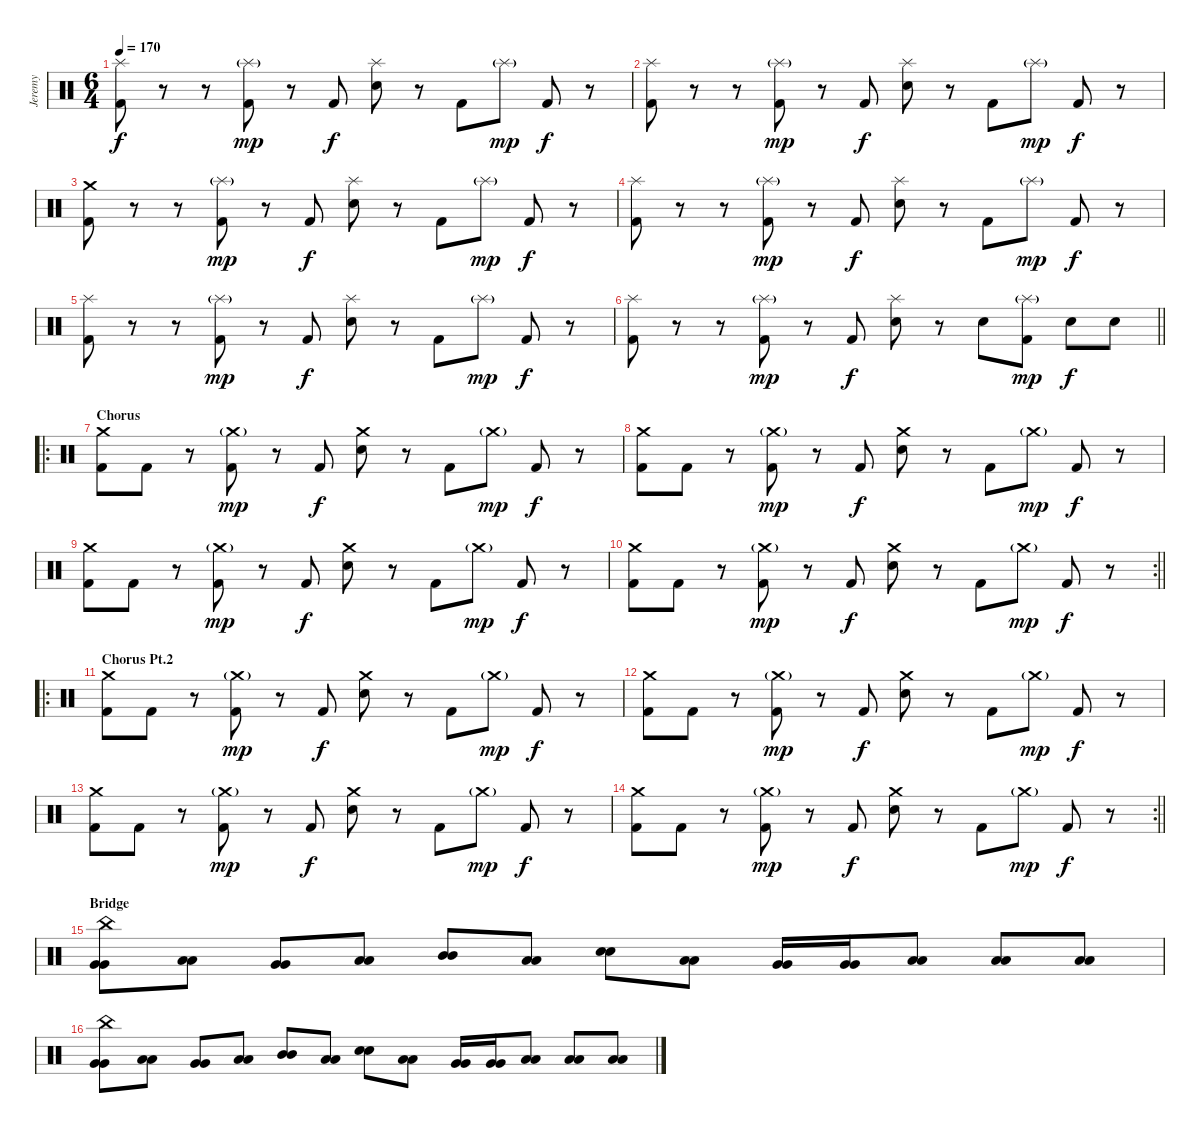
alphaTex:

\track ("Jeremy" "Jeremy") {instrument percussion}
\staff {score}
\articulation defaults
\ts (6 4)
\tempo 170
\clef neutral
\ks c
("Splash (hit)" "Kick (hit) 2").8{dy f} r.8 r.8 ("Splash (hit)"{g} "Kick (hit) 2").8{dy mp} r.8 "Kick (hit) 2".8{dy f} ("Splash (hit)" "Electric Snare (hit)").8 r.8 "Kick (hit) 2".8 "Splash (hit)"{g}.8{dy mp} "Kick (hit) 2".8{dy f} r.8 |
("Splash (hit)" "Kick (hit) 2").8 r.8 r.8 ("Splash (hit)"{g} "Kick (hit) 2").8{dy mp} r.8 "Kick (hit) 2".8{dy f} ("Splash (hit)" "Electric Snare (hit)").8 r.8 "Kick (hit) 2".8 "Splash (hit)"{g}.8{dy mp} "Kick (hit) 2".8{dy f} r.8 |
("Crash medium (hit)" "Kick (hit) 2").8 r.8 r.8 ("Splash (hit)"{g} "Kick (hit) 2").8{dy mp} r.8 "Kick (hit) 2".8{dy f} ("Splash (hit)" "Electric Snare (hit)").8 r.8 "Kick (hit) 2".8 "Splash (hit)"{g}.8{dy mp} "Kick (hit) 2".8{dy f} r.8 |
("Splash (hit)" "Kick (hit) 2").8 r.8 r.8 ("Splash (hit)"{g} "Kick (hit) 2").8{dy mp} r.8 "Kick (hit) 2".8{dy f} ("Splash (hit)" "Electric Snare (hit)").8 r.8 "Kick (hit) 2".8 "Splash (hit)"{g}.8{dy mp} "Kick (hit) 2".8{dy f} r.8 |
("Splash (hit)" "Kick (hit) 2").8 r.8 r.8 ("Splash (hit)"{g} "Kick (hit) 2").8{dy mp} r.8 "Kick (hit) 2".8{dy f} ("Splash (hit)" "Electric Snare (hit)").8 r.8 "Kick (hit) 2".8 "Splash (hit)"{g}.8{dy mp} "Kick (hit) 2".8{dy f} r.8 |
\barLineRight lightlight
("Splash (hit)" "Kick (hit) 2").8 r.8 r.8 ("Splash (hit)"{g} "Kick (hit) 2").8{dy mp} r.8 "Kick (hit) 2".8{dy f} ("Splash (hit)" "Snare (hit) 2").8 r.8 "Snare (hit) 2".8 ("Splash (hit)"{g} "Kick (hit) 2").8{dy mp} "Snare (hit) 2".8{dy f} "Snare (hit) 2".8 |
\ro
\section ("" "Chorus")
("Crash medium (hit)" "Kick (hit) 2").8 "Kick (hit) 2".8 r.8 ("Crash medium (hit)"{g} "Kick (hit) 2").8{dy mp} r.8 "Kick (hit) 2".8{dy f} ("Crash medium (hit)" "Electric Snare (hit)").8 r.8 "Kick (hit) 2".8 "Crash medium (hit)"{g}.8{dy mp} "Kick (hit) 2".8{dy f} r.8 |
("Crash medium (hit)" "Kick (hit) 2").8 "Kick (hit) 2".8 r.8 ("Crash medium (hit)"{g} "Kick (hit) 2").8{dy mp} r.8 "Kick (hit) 2".8{dy f} ("Crash medium (hit)" "Electric Snare (hit)").8 r.8 "Kick (hit) 2".8 "Crash medium (hit)"{g}.8{dy mp} "Kick (hit) 2".8{dy f} r.8 |
("Crash medium (hit)" "Kick (hit) 2").8 "Kick (hit) 2".8 r.8 ("Crash medium (hit)"{g} "Kick (hit) 2").8{dy mp} r.8 "Kick (hit) 2".8{dy f} ("Crash medium (hit)" "Electric Snare (hit)").8 r.8 "Kick (hit) 2".8 "Crash medium (hit)"{g}.8{dy mp} "Kick (hit) 2".8{dy f} r.8 |
\rc 2
\barLineRight lightlight
("Crash medium (hit)" "Kick (hit) 2").8 "Kick (hit) 2".8 r.8 ("Crash medium (hit)"{g} "Kick (hit) 2").8{dy mp} r.8 "Kick (hit) 2".8{dy f} ("Crash medium (hit)" "Electric Snare (hit)").8 r.8 "Kick (hit) 2".8 "Crash medium (hit)"{g}.8{dy mp} "Kick (hit) 2".8{dy f} r.8 |
\ro
\section ("" "Chorus Pt.2")
("Crash medium (hit)" "Kick (hit) 2").8 "Kick (hit) 2".8 r.8 ("Crash medium (hit)"{g} "Kick (hit) 2").8{dy mp} r.8 "Kick (hit) 2".8{dy f} ("Crash medium (hit)" "Electric Snare (hit)").8 r.8 "Kick (hit) 2".8 "Crash medium (hit)"{g}.8{dy mp} "Kick (hit) 2".8{dy f} r.8 |
("Crash medium (hit)" "Kick (hit) 2").8 "Kick (hit) 2".8 r.8 ("Crash medium (hit)"{g} "Kick (hit) 2").8{dy mp} r.8 "Kick (hit) 2".8{dy f} ("Crash medium (hit)" "Electric Snare (hit)").8 r.8 "Kick (hit) 2".8 "Crash medium (hit)"{g}.8{dy mp} "Kick (hit) 2".8{dy f} r.8 |
("Crash medium (hit)" "Kick (hit) 2").8 "Kick (hit) 2".8 r.8 ("Crash medium (hit)"{g} "Kick (hit) 2").8{dy mp} r.8 "Kick (hit) 2".8{dy f} ("Crash medium (hit)" "Electric Snare (hit)").8 r.8 "Kick (hit) 2".8 "Crash medium (hit)"{g}.8{dy mp} "Kick (hit) 2".8{dy f} r.8 |
\rc 2
\barLineRight lightlight
("Crash medium (hit)" "Kick (hit) 2").8 "Kick (hit) 2".8 r.8 ("Crash medium (hit)"{g} "Kick (hit) 2").8{dy mp} r.8 "Kick (hit) 2".8{dy f} ("Crash medium (hit)" "Electric Snare (hit)").8 r.8 "Kick (hit) 2".8 "Crash medium (hit)"{g}.8{dy mp} "Kick (hit) 2".8{dy f} r.8 |
\section ("" "Bridge")
("China (hit)" "Very Low Tom (hit)" "Very Low Tom (hit)").8 ("Low Floor Tom (hit)" "Low Floor Tom (hit)").8 ("Very Low Tom (hit)" "Very Low Tom (hit)").8 ("Low Tom (hit)" "Low Tom (hit)").8 ("Mid Tom (hit)" "Mid Tom (hit)").8 ("Low Tom (hit)" "Low Tom (hit)").8 ("Snare (hit) 2" "Snare (hit) 2").8 ("Low Tom (hit)" "Low Tom (hit)").8 ("Very Low Tom (hit)" "Very Low Tom (hit)").16 ("Very Low Tom (hit)" "Very Low Tom (hit)").16 ("Low Floor Tom (hit)" "Low Floor Tom (hit)").8 ("Low Floor Tom (hit)" "Low Floor Tom (hit)").8 ("Low Floor Tom (hit)" "Low Floor Tom (hit)").8 |
("China (hit)" "Very Low Tom (hit)" "Very Low Tom (hit)").8 ("Low Floor Tom (hit)" "Low Floor Tom (hit)").8 ("Very Low Tom (hit)" "Very Low Tom (hit)").8 ("Low Tom (hit)" "Low Tom (hit)").8 ("Mid Tom (hit)" "Mid Tom (hit)").8 ("Low Tom (hit)" "Low Tom (hit)").8 ("Snare (hit) 2" "Snare (hit) 2").8 ("Low Tom (hit)" "Low Tom (hit)").8 ("Very Low Tom (hit)" "Very Low Tom (hit)").16 ("Very Low Tom (hit)" "Very Low Tom (hit)").16 ("Low Floor Tom (hit)" "Low Floor Tom (hit)").8 ("Low Floor Tom (hit)" "Low Floor Tom (hit)").8 ("Low Floor Tom (hit)" "Low Floor Tom (hit)").8
